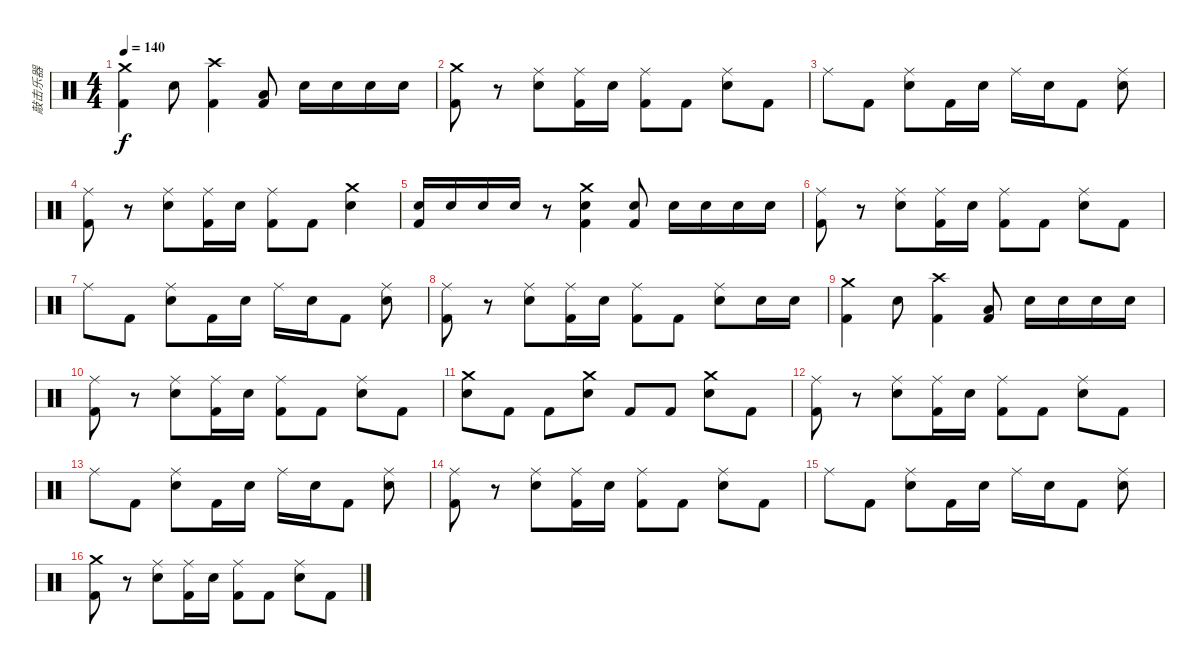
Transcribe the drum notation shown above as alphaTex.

\track ("敲击乐器" "敲击乐器") {instrument percussion}
\staff {score}
\articulation defaults
\ts (4 4)
\tempo 140
\clef neutral
\ks c
("Crash medium (hit)" "Kick (hit) 2").4{dy f} "Snare (hit) 2".8 ("Crash high (hit)" "Kick (hit) 2").4 ("Low Tom (hit)" "Kick (hit) 2").8 "Snare (hit) 2".16 "Snare (hit) 2".16 "Snare (hit) 2".16 "Snare (hit) 2".16 |
("Crash medium (hit)" "Kick (hit) 2").8 r.8 ("Ride (middle)" "Snare (hit) 2").8 ("Ride (middle)" "Kick (hit) 2").16 "Snare (hit) 2".16 ("Ride (middle)" "Kick (hit) 2").8 "Kick (hit) 2".8 ("Ride (middle)" "Snare (hit) 2").8 "Kick (hit) 2".8 |
"Ride (middle)".8 "Kick (hit) 2".8 ("Ride (middle)" "Snare (hit) 2").8 "Kick (hit) 2".16 "Snare (hit) 2".16 "Ride (middle)".16 "Snare (hit) 2".16 "Kick (hit) 2".8 ("Ride (middle)" "Snare (hit) 2").8 |
("Ride (middle)" "Kick (hit) 2").8 r.8 ("Ride (middle)" "Snare (hit) 2").8 ("Ride (middle)" "Kick (hit) 2").16 "Snare (hit) 2".16 ("Ride (middle)" "Kick (hit) 2").8 "Kick (hit) 2".8 ("Crash medium (hit)" "Snare (hit) 2").4 |
("Snare (hit) 2" "Kick (hit) 2").16 "Snare (hit) 2".16 "Snare (hit) 2".16 "Snare (hit) 2".16 r.8 ("Crash medium (hit)" "Snare (hit) 2" "Kick (hit) 2").4 ("Snare (hit) 2" "Kick (hit) 2").8 "Snare (hit) 2".16 "Snare (hit) 2".16 "Snare (hit) 2".16 "Snare (hit) 2".16 |
("Ride (middle)" "Kick (hit) 2").8 r.8 ("Ride (middle)" "Snare (hit) 2").8 ("Ride (middle)" "Kick (hit) 2").16 "Snare (hit) 2".16 ("Ride (middle)" "Kick (hit) 2").8 "Kick (hit) 2".8 ("Ride (middle)" "Snare (hit) 2").8 "Kick (hit) 2".8 |
"Ride (middle)".8 "Kick (hit) 2".8 ("Ride (middle)" "Snare (hit) 2").8 "Kick (hit) 2".16 "Snare (hit) 2".16 "Ride (middle)".16 "Snare (hit) 2".16 "Kick (hit) 2".8 ("Ride (middle)" "Snare (hit) 2").8 |
("Ride (middle)" "Kick (hit) 2").8 r.8 ("Ride (middle)" "Snare (hit) 2").8 ("Ride (middle)" "Kick (hit) 2").16 "Snare (hit) 2".16 ("Ride (middle)" "Kick (hit) 2").8 "Kick (hit) 2".8 ("Ride (middle)" "Snare (hit) 2").8 "Snare (hit) 2".16 "Snare (hit) 2".16 |
("Crash medium (hit)" "Kick (hit) 2").4 "Snare (hit) 2".8 ("Crash high (hit)" "Kick (hit) 2").4 ("Low Tom (hit)" "Kick (hit) 2").8 "Snare (hit) 2".16 "Snare (hit) 2".16 "Snare (hit) 2".16 "Snare (hit) 2".16 |
("Ride (middle)" "Kick (hit) 2").8 r.8 ("Ride (middle)" "Snare (hit) 2").8 ("Ride (middle)" "Kick (hit) 2").16 "Snare (hit) 2".16 ("Ride (middle)" "Kick (hit) 2").8 "Kick (hit) 2".8 ("Ride (middle)" "Snare (hit) 2").8 "Kick (hit) 2".8 |
("Crash medium (hit)" "Snare (hit) 2").8 "Kick (hit) 2".8 "Kick (hit) 2".8 ("Crash medium (hit)" "Snare (hit) 2").8 "Kick (hit) 2".8 "Kick (hit) 2".8 ("Crash medium (hit)" "Snare (hit) 2").8 "Kick (hit) 2".8 |
("Ride (middle)" "Kick (hit) 2").8 r.8 ("Ride (middle)" "Snare (hit) 2").8 ("Ride (middle)" "Kick (hit) 2").16 "Snare (hit) 2".16 ("Ride (middle)" "Kick (hit) 2").8 "Kick (hit) 2".8 ("Ride (middle)" "Snare (hit) 2").8 "Kick (hit) 2".8 |
"Ride (middle)".8 "Kick (hit) 2".8 ("Ride (middle)" "Snare (hit) 2").8 "Kick (hit) 2".16 "Snare (hit) 2".16 "Ride (middle)".16 "Snare (hit) 2".16 "Kick (hit) 2".8 ("Ride (middle)" "Snare (hit) 2").8 |
("Ride (middle)" "Kick (hit) 2").8 r.8 ("Ride (middle)" "Snare (hit) 2").8 ("Ride (middle)" "Kick (hit) 2").16 "Snare (hit) 2".16 ("Ride (middle)" "Kick (hit) 2").8 "Kick (hit) 2".8 ("Ride (middle)" "Snare (hit) 2").8 "Kick (hit) 2".8 |
"Ride (middle)".8 "Kick (hit) 2".8 ("Ride (middle)" "Snare (hit) 2").8 "Kick (hit) 2".16 "Snare (hit) 2".16 "Ride (middle)".16 "Snare (hit) 2".16 "Kick (hit) 2".8 ("Ride (middle)" "Snare (hit) 2").8 |
("Crash medium (hit)" "Kick (hit) 2").8 r.8 ("Ride (middle)" "Snare (hit) 2").8 ("Ride (middle)" "Kick (hit) 2").16 "Snare (hit) 2".16 ("Ride (middle)" "Kick (hit) 2").8 "Kick (hit) 2".8 ("Ride (middle)" "Snare (hit) 2").8 "Kick (hit) 2".8
